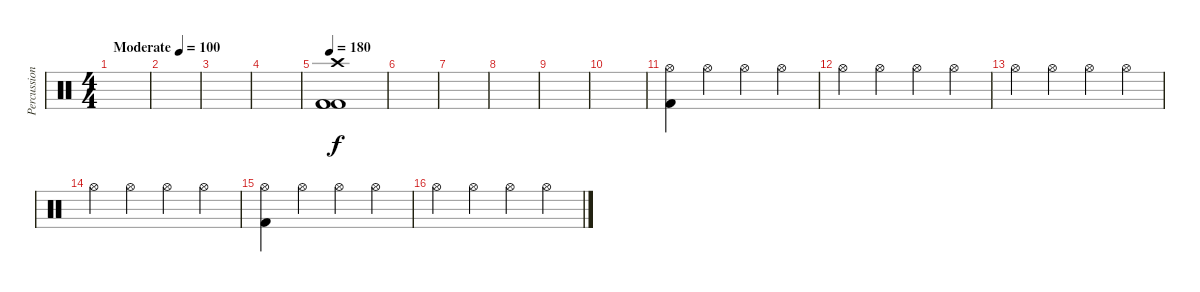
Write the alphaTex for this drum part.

\track ("Percussion" "Percussion") {instrument percussion}
\staff {score}
\articulation defaults
\ts (4 4)
\tempo (100 "Moderate")
\clef neutral
\ks c
|
|
|
|
\tempo 180
("Crash high (hit)" "Kick (hit) 2" "Kick (hit) 2" "Kick (hit) 2").1 |
|
|
|
|
|
("Hi-Hat (open)" "Kick (hit) 2").4 "Hi-Hat (open)".4 "Hi-Hat (open)".4 "Hi-Hat (open)".4 |
"Hi-Hat (open)".4 "Hi-Hat (open)".4 "Hi-Hat (open)".4 "Hi-Hat (open)".4 |
"Hi-Hat (open)".4 "Hi-Hat (open)".4 "Hi-Hat (open)".4 "Hi-Hat (open)".4 |
"Hi-Hat (open)".4 "Hi-Hat (open)".4 "Hi-Hat (open)".4 "Hi-Hat (open)".4 |
("Hi-Hat (open)" "Kick (hit) 2").4 "Hi-Hat (open)".4 "Hi-Hat (open)".4 "Hi-Hat (open)".4 |
"Hi-Hat (open)".4 "Hi-Hat (open)".4 "Hi-Hat (open)".4 "Hi-Hat (open)".4
